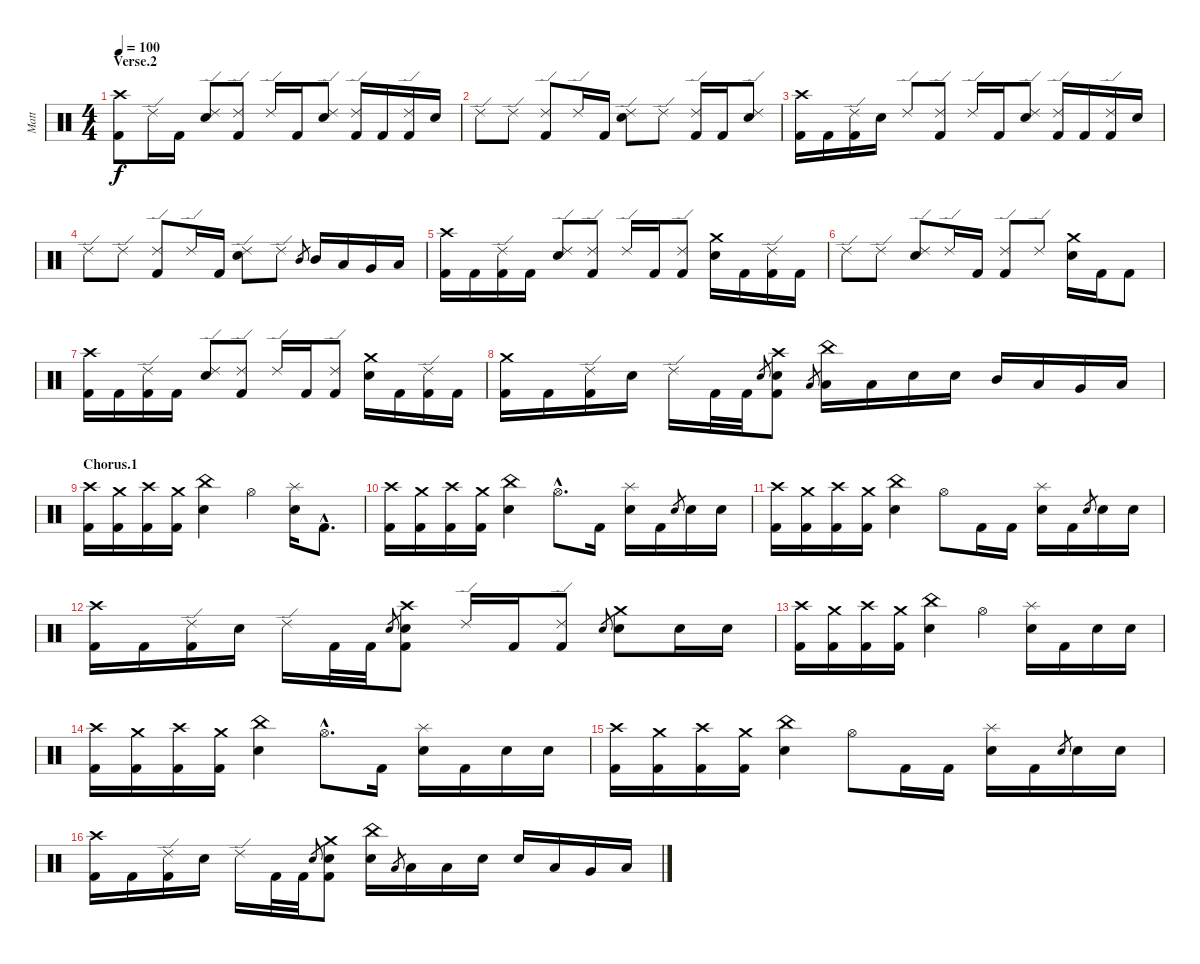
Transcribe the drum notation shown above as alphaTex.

\track ("Matt" "Matt") {instrument percussion}
\staff {score}
\articulation defaults
\ts (4 4)
\section ("" "Verse.2")
\tempo 100
\clef neutral
\ks c
("Crash high (hit)" "Kick (hit) 2").8{dy f} "Ride (edge) 2".16 "Kick (hit) 2".16 ("Ride (edge) 2" "Electric Snare (hit)").8 ("Ride (edge) 2" "Kick (hit) 2").8 "Ride (edge) 2".16 "Kick (hit) 2".16 ("Ride (edge) 2" "Electric Snare (hit)").8 ("Ride (edge) 2" "Kick (hit) 2").16 "Kick (hit) 2".16 ("Ride (edge) 2" "Kick (hit) 2").16 "Electric Snare (hit)".16 |
"Ride (edge) 2".8 "Ride (edge) 2".8 ("Ride (edge) 2" "Kick (hit) 2").8 "Ride (edge) 2".16 "Kick (hit) 2".16 ("Ride (edge) 2" "Electric Snare (hit)").8 "Ride (edge) 2".8 ("Ride (edge) 2" "Kick (hit) 2").16 "Kick (hit) 2".16 ("Ride (edge) 2" "Electric Snare (hit)").8 |
("Crash high (hit)" "Kick (hit) 2").16 "Kick (hit) 2".16 ("Ride (edge) 2" "Kick (hit) 2").16 "Electric Snare (hit)".16 "Ride (edge) 2".8 ("Ride (edge) 2" "Kick (hit) 2").8 "Ride (edge) 2".16 "Kick (hit) 2".16 ("Ride (edge) 2" "Electric Snare (hit)").8 ("Ride (edge) 2" "Kick (hit) 2").16 "Kick (hit) 2".16 ("Ride (edge) 2" "Kick (hit) 2").16 "Electric Snare (hit)".16 |
"Ride (edge) 2".8 "Ride (edge) 2".8 ("Ride (edge) 2" "Kick (hit) 2").8 "Ride (edge) 2".16 "Kick (hit) 2".16 ("Ride (edge) 2" "Electric Snare (hit)").8 "Ride (edge) 2".8 "Mid Tom (hit)".8{gr} "Mid Tom (hit)".16 "Low Tom (hit)".16 "Very Low Tom (hit)".16 "Low Floor Tom (hit)".16 |
("Crash high (hit)" "Kick (hit) 2").16 "Kick (hit) 2".16 ("Ride (edge) 2" "Kick (hit) 2").16 "Kick (hit) 2".16 ("Ride (edge) 2" "Electric Snare (hit)").8 ("Ride (edge) 2" "Kick (hit) 2").8 "Ride (edge) 2".16 "Kick (hit) 2".16 ("Ride (edge) 2" "Kick (hit) 2").8 ("Crash medium (hit)" "Electric Snare (hit)").16 "Kick (hit) 2".16 ("Ride (edge) 2" "Kick (hit) 2").16 "Kick (hit) 2".16 |
"Ride (edge) 2".8 "Ride (edge) 2".8 ("Ride (edge) 2" "Electric Snare (hit)").8 "Ride (edge) 2".16 "Kick (hit) 2".16 ("Ride (edge) 2" "Kick (hit) 2").8 "Ride (edge) 2".8 ("Crash medium (hit)" "Electric Snare (hit)").16 "Kick (hit) 2".16 "Kick (hit) 2".8 |
("Crash high (hit)" "Kick (hit) 2").16 "Kick (hit) 2".16 ("Ride (edge) 2" "Kick (hit) 2").16 "Kick (hit) 2".16 ("Ride (edge) 2" "Electric Snare (hit)").8 ("Ride (edge) 2" "Kick (hit) 2").8 "Ride (edge) 2".16 "Kick (hit) 2".16 ("Ride (edge) 2" "Kick (hit) 2").8 ("Crash medium (hit)" "Electric Snare (hit)").16 "Kick (hit) 2".16 ("Ride (edge) 2" "Kick (hit) 2").16 "Kick (hit) 2".16 |
("Crash medium (hit)" "Kick (hit) 2").16 "Kick (hit) 2".16 ("Ride (edge) 2" "Kick (hit) 2").16 "Electric Snare (hit)".16 "Ride (edge) 2".16 "Kick (hit) 2".32 "Kick (hit) 2".32 "Electric Snare (hit)".8{gr} ("Crash high (hit)" "Electric Snare (hit)" "Kick (hit) 2").8 "Low Tom (hit)".8{gr} ("China (hit)" "Low Tom (hit)").16 "Low Tom (hit)".16 "Electric Snare (hit)".16 "Electric Snare (hit)".16 "Mid Tom (hit)".16 "Low Tom (hit)".16 "Very Low Tom (hit)".16 "Low Floor Tom (hit)".16 |
\section ("" "Chorus.1")
("Crash high (hit)" "Kick (hit) 2").16 ("Crash medium (hit)" "Kick (hit) 2").16 ("Crash high (hit)" "Kick (hit) 2").16 ("Crash medium (hit)" "Kick (hit) 2").16 ("China (hit)" "Electric Snare (hit)").4 "Hi-Hat (open)".4 ("Splash (hit)" "Electric Snare (hit)").16 "Kick (hit) 2"{hac}.8{d} |
("Crash high (hit)" "Kick (hit) 2").16 ("Crash medium (hit)" "Kick (hit) 2").16 ("Crash high (hit)" "Kick (hit) 2").16 ("Crash medium (hit)" "Kick (hit) 2").16 ("China (hit)" "Electric Snare (hit)").4 "Hi-Hat (open)"{hac}.8{d} "Kick (hit) 2".16 ("Splash (hit)" "Electric Snare (hit)").16 "Kick (hit) 2".16 "Electric Snare (hit)".8{gr} "Electric Snare (hit)".16 "Electric Snare (hit)".16 |
("Crash high (hit)" "Kick (hit) 2").16 ("Crash medium (hit)" "Kick (hit) 2").16 ("Crash high (hit)" "Kick (hit) 2").16 ("Crash medium (hit)" "Kick (hit) 2").16 ("China (hit)" "Electric Snare (hit)").4 "Hi-Hat (open)".8 "Kick (hit) 2".16 "Kick (hit) 2".16 ("Splash (hit)" "Electric Snare (hit)").16 "Kick (hit) 2".16 "Electric Snare (hit)".8{gr} "Electric Snare (hit)".16 "Electric Snare (hit)".16 |
("Crash high (hit)" "Kick (hit) 2").16 "Kick (hit) 2".16 ("Ride (edge) 2" "Kick (hit) 2").16 "Electric Snare (hit)".16 "Ride (edge) 2".16 "Kick (hit) 2".32 "Kick (hit) 2".32 "Electric Snare (hit)".8{gr} ("Crash high (hit)" "Electric Snare (hit)" "Kick (hit) 2").8 "Ride (edge) 2".16 "Kick (hit) 2".16 ("Ride (edge) 2" "Kick (hit) 2").8 "Electric Snare (hit)".8{gr} ("Crash medium (hit)" "Electric Snare (hit)").8 "Electric Snare (hit)".16 "Electric Snare (hit)".16 |
("Crash high (hit)" "Kick (hit) 2").16 ("Crash medium (hit)" "Kick (hit) 2").16 ("Crash high (hit)" "Kick (hit) 2").16 ("Crash medium (hit)" "Kick (hit) 2").16 ("China (hit)" "Electric Snare (hit)").4 "Hi-Hat (open)".4 ("Splash (hit)" "Electric Snare (hit)").16 "Kick (hit) 2".16 "Electric Snare (hit)".16 "Electric Snare (hit)".16 |
("Crash high (hit)" "Kick (hit) 2").16 ("Crash medium (hit)" "Kick (hit) 2").16 ("Crash high (hit)" "Kick (hit) 2").16 ("Crash medium (hit)" "Kick (hit) 2").16 ("China (hit)" "Electric Snare (hit)").4 "Hi-Hat (open)"{hac}.8{d} "Kick (hit) 2".16 ("Splash (hit)" "Electric Snare (hit)").16 "Kick (hit) 2".16 "Electric Snare (hit)".16 "Electric Snare (hit)".16 |
("Crash high (hit)" "Kick (hit) 2").16 ("Crash medium (hit)" "Kick (hit) 2").16 ("Crash high (hit)" "Kick (hit) 2").16 ("Crash medium (hit)" "Kick (hit) 2").16 ("China (hit)" "Electric Snare (hit)").4 "Hi-Hat (open)".8 "Kick (hit) 2".16 "Kick (hit) 2".16 ("Splash (hit)" "Electric Snare (hit)").16 "Kick (hit) 2".16 "Electric Snare (hit)".8{gr} "Electric Snare (hit)".16 "Electric Snare (hit)".16 |
("Crash high (hit)" "Kick (hit) 2").16 "Kick (hit) 2".16 ("Ride (edge) 2" "Kick (hit) 2").16 "Electric Snare (hit)".16 "Ride (edge) 2".16 "Kick (hit) 2".32 "Kick (hit) 2".32 "Electric Snare (hit)".8{gr} ("Crash medium (hit)" "Electric Snare (hit)" "Kick (hit) 2").8 ("China (hit)" "Electric Snare (hit)").16 "Low Tom (hit)".8{gr} "Low Tom (hit)".16 "Low Tom (hit)".16 "Electric Snare (hit)".16 "Electric Snare (hit)".16 "Low Tom (hit)".16 "Very Low Tom (hit)".16 "Low Floor Tom (hit)".16
